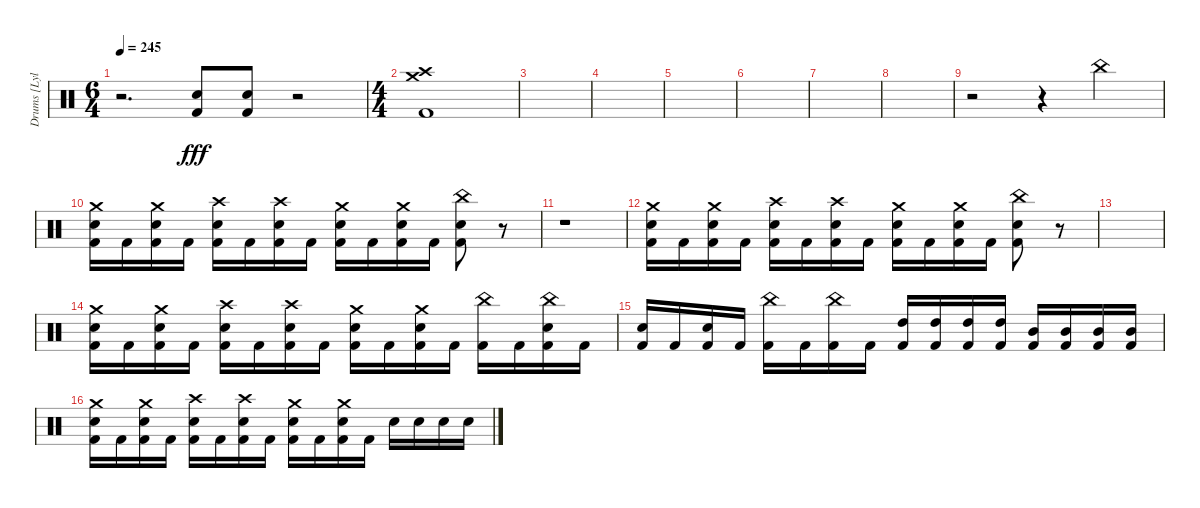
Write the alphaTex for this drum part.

\track ("Drums [Lyle Cooper]" "Drums [Lyl") {instrument percussion}
\staff {score}
\articulation defaults
\ts (6 4)
\tempo 245
\clef neutral
\ks c
r.2{d dy fff} ("Kick (hit) 2" "Electric Snare (hit)").8 ("Kick (hit) 2" "Electric Snare (hit)").8 r.2 |
\ts (4 4)
("Crash medium (hit)" "Crash high (hit)" "Kick (hit) 2").1 |
|
|
|
|
|
|
r.2 r.4 "China (hit)".4 |
("Crash medium (hit)" "Electric Snare (hit)" "Kick (hit) 2").16 "Kick (hit) 2".16 ("Crash medium (hit)" "Electric Snare (hit)" "Kick (hit) 2").16 "Kick (hit) 2".16 ("Crash high (hit)" "Electric Snare (hit)" "Kick (hit) 2").16 "Kick (hit) 2".16 ("Crash high (hit)" "Electric Snare (hit)" "Kick (hit) 2").16 "Kick (hit) 2".16 ("Crash medium (hit)" "Electric Snare (hit)" "Kick (hit) 2").16 "Kick (hit) 2".16 ("Crash medium (hit)" "Electric Snare (hit)" "Kick (hit) 2").16 "Kick (hit) 2".16 ("China (hit)" "Electric Snare (hit)" "Kick (hit) 2").8 r.8 |
r.1 |
("Crash medium (hit)" "Electric Snare (hit)" "Kick (hit) 2").16 "Kick (hit) 2".16 ("Crash medium (hit)" "Electric Snare (hit)" "Kick (hit) 2").16 "Kick (hit) 2".16 ("Crash high (hit)" "Electric Snare (hit)" "Kick (hit) 2").16 "Kick (hit) 2".16 ("Crash high (hit)" "Electric Snare (hit)" "Kick (hit) 2").16 "Kick (hit) 2".16 ("Crash medium (hit)" "Electric Snare (hit)" "Kick (hit) 2").16 "Kick (hit) 2".16 ("Crash medium (hit)" "Electric Snare (hit)" "Kick (hit) 2").16 "Kick (hit) 2".16 ("China (hit)" "Electric Snare (hit)" "Kick (hit) 2").8 r.8 |
|
("Crash medium (hit)" "Electric Snare (hit)" "Kick (hit) 2").16 "Kick (hit) 2".16 ("Crash medium (hit)" "Electric Snare (hit)" "Kick (hit) 2").16 "Kick (hit) 2".16 ("Crash high (hit)" "Electric Snare (hit)" "Kick (hit) 2").16 "Kick (hit) 2".16 ("Crash high (hit)" "Electric Snare (hit)" "Kick (hit) 2").16 "Kick (hit) 2".16 ("Crash medium (hit)" "Electric Snare (hit)" "Kick (hit) 2").16 "Kick (hit) 2".16 ("Crash medium (hit)" "Electric Snare (hit)" "Kick (hit) 2").16 "Kick (hit) 2".16 ("China (hit)" "Kick (hit) 2").16 "Kick (hit) 2".16 ("China (hit)" "Electric Snare (hit)" "Kick (hit) 2").16 "Kick (hit) 2".16 |
("Electric Snare (hit)" "Kick (hit) 2").16 "Kick (hit) 2".16 ("Electric Snare (hit)" "Kick (hit) 2").16 "Kick (hit) 2".16 ("China (hit)" "Kick (hit) 2").16 "Kick (hit) 2".16 ("China (hit)" "Kick (hit) 2").16 "Kick (hit) 2".16 ("High Tom (hit)" "Kick (hit) 2").16 ("High Tom (hit)" "Kick (hit) 2").16 ("High Tom (hit)" "Kick (hit) 2").16 ("High Tom (hit)" "Kick (hit) 2").16 ("Mid Tom (hit)" "Kick (hit) 2").16 ("Mid Tom (hit)" "Kick (hit) 2").16 ("Mid Tom (hit)" "Kick (hit) 2").16 ("Mid Tom (hit)" "Kick (hit) 2").16 |
("Crash medium (hit)" "Electric Snare (hit)" "Kick (hit) 2").16 "Kick (hit) 2".16 ("Crash medium (hit)" "Electric Snare (hit)" "Kick (hit) 2").16 "Kick (hit) 2".16 ("Crash high (hit)" "Electric Snare (hit)" "Kick (hit) 2").16 "Kick (hit) 2".16 ("Crash high (hit)" "Electric Snare (hit)" "Kick (hit) 2").16 "Kick (hit) 2".16 ("Crash medium (hit)" "Electric Snare (hit)" "Kick (hit) 2").16 "Kick (hit) 2".16 ("Crash medium (hit)" "Electric Snare (hit)" "Kick (hit) 2").16 "Kick (hit) 2".16 "Electric Snare (hit)".16 "Electric Snare (hit)".16 "Electric Snare (hit)".16 "Electric Snare (hit)".16
